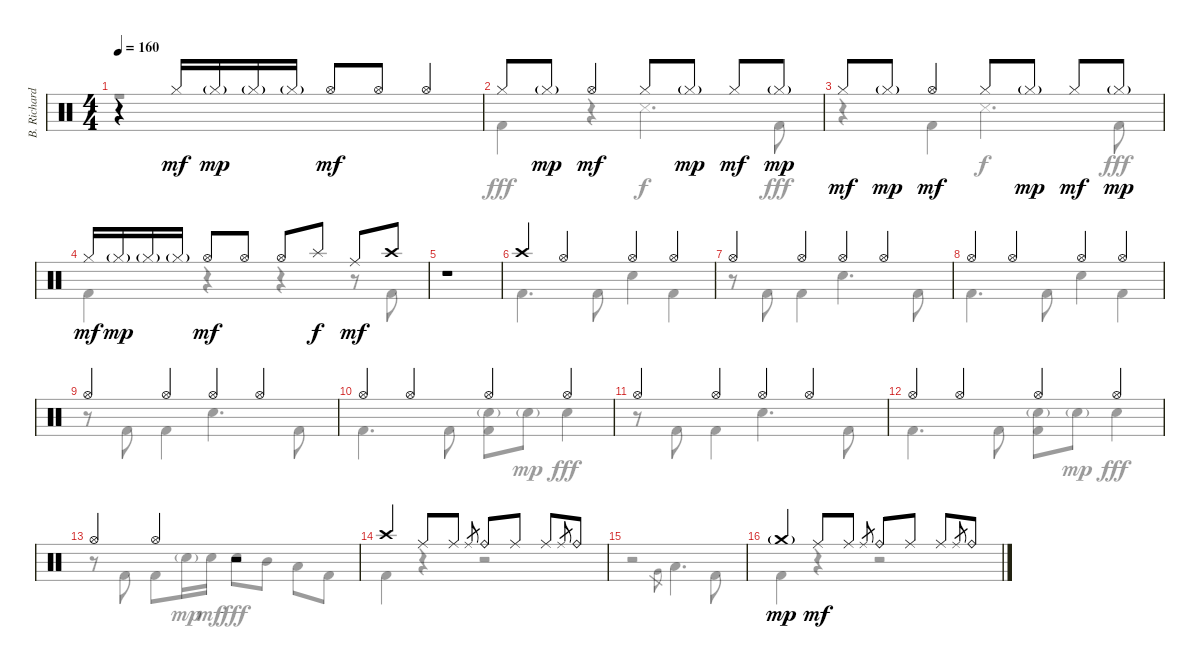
\track ("B. Richardson Drums" "B. Richard") {instrument percussion}
\staff {score}
\articulation defaults
\voice
\ts (4 4)
\tempo 160
\clef neutral
\ks c
r.4{dy mf} "Hi-Hat (closed)".16 "Hi-Hat (closed)"{g}.16{dy mp} "Hi-Hat (closed)"{g}.16 "Hi-Hat (closed)"{g}.16 "Hi-Hat (open)".8{dy mf} "Hi-Hat (open)".8 "Hi-Hat (open)".4 |
"Hi-Hat (closed)".8 "Hi-Hat (closed)"{g}.8{dy mp} "Hi-Hat (open)".4{dy mf} "Hi-Hat (closed)".8 "Hi-Hat (closed)"{g}.8{dy mp} "Hi-Hat (closed)".8{dy mf} "Hi-Hat (closed)"{g}.8{dy mp} |
"Hi-Hat (closed)".8{dy mf} "Hi-Hat (closed)"{g}.8{dy mp} "Hi-Hat (open)".4{dy mf} "Hi-Hat (closed)".8 "Hi-Hat (closed)"{g}.8{dy mp} "Hi-Hat (closed)".8{dy mf} "Hi-Hat (closed)"{g}.8{dy mp} |
"Hi-Hat (closed)".16{dy mf} "Hi-Hat (closed)"{g}.16{dy mp} "Hi-Hat (closed)"{g}.16 "Hi-Hat (closed)"{g}.16 "Hi-Hat (open)".8{dy mf} "Hi-Hat (open)".8 "Hi-Hat (open)".8 "Splash (hit)".8{dy f} "Ride (middle)".8{dy mf} "Crash high (hit)".8 |
r.1 |
"Crash high (hit)".4 "Hi-Hat (open)".4 "Hi-Hat (open)".4 "Hi-Hat (open)".4 |
"Hi-Hat (open)".4 "Hi-Hat (open)".4 "Hi-Hat (open)".4 "Hi-Hat (open)".4 |
"Hi-Hat (open)".4 "Hi-Hat (open)".4 "Hi-Hat (open)".4 "Hi-Hat (open)".4 |
"Hi-Hat (open)".4 "Hi-Hat (open)".4 "Hi-Hat (open)".4 "Hi-Hat (open)".4 |
"Hi-Hat (open)".4 "Hi-Hat (open)".4 "Hi-Hat (open)".4 "Hi-Hat (open)".4 |
"Hi-Hat (open)".4 "Hi-Hat (open)".4 "Hi-Hat (open)".4 "Hi-Hat (open)".4 |
"Hi-Hat (open)".4 "Hi-Hat (open)".4 "Hi-Hat (open)".4 "Hi-Hat (open)".4 |
"Hi-Hat (open)".4 "Hi-Hat (open)".4 r.2 |
"Crash high (hit)".4 "Ride (middle)".8 "Ride (middle)".8 "Ride (middle)".8{gr} "Ride (bell)".8 "Ride (middle)".8 "Ride (middle)".8 "Ride (middle)".8{gr} "Ride (bell)".8 |
|
"Crash medium (hit)"{g}.4{dy mp} "Ride (middle)".8{dy mf} "Ride (middle)".8 "Ride (middle)".8{gr} "Ride (bell)".8 "Ride (middle)".8 "Ride (middle)".8 "Ride (middle)".8{gr} "Ride (bell)".8
\voice
\clef neutral
\ottava regular
\simile none
\ks c
r.1{dy fff} |
"Kick (hit) 2".4 r.4 "Snare (side stick) 3".4{d dy f} "Kick (hit) 2".8{dy fff} |
r.4 "Kick (hit) 2".4 "Snare (side stick) 3".4{d dy f} "Kick (hit) 2".8{dy fff} |
"Kick (hit) 2".4 r.4 r.4 r.8 "Kick (hit) 2".8 |
r.1 |
"Kick (hit) 2".4{d} "Kick (hit) 2".8 "Electric Snare (hit)".4 "Kick (hit) 2".4 |
r.8 "Kick (hit) 2".8 "Kick (hit) 2".4 "Electric Snare (hit)".4{d} "Kick (hit) 2".8 |
"Kick (hit) 2".4{d} "Kick (hit) 2".8 "Electric Snare (hit)".4 "Kick (hit) 2".4 |
r.8 "Kick (hit) 2".8 "Kick (hit) 2".4 "Electric Snare (hit)".4{d} "Kick (hit) 2".8 |
"Kick (hit) 2".4{d} "Kick (hit) 2".8 ("Electric Snare (hit)"{g} "Kick (hit) 2").8 "Electric Snare (hit)"{g}.8{dy mp} "Electric Snare (hit)".4{dy fff} |
r.8 "Kick (hit) 2".8 "Kick (hit) 2".4 "Electric Snare (hit)".4{d} "Kick (hit) 2".8 |
"Kick (hit) 2".4{d} "Kick (hit) 2".8 ("Electric Snare (hit)"{g} "Kick (hit) 2").8 "Electric Snare (hit)"{g}.8{dy mp} "Electric Snare (hit)".4{dy fff} |
r.8 "Kick (hit) 2".8 "Kick (hit) 2".8 "Electric Snare (hit)"{g}.16{dy mp} "Electric Snare (hit)".16{dy mf} "Electric Snare (hit)".8{dy fff} "Mid Tom (hit)".8 "Low Tom (hit)".8 "Kick (hit) 2".8 |
"Kick (hit) 2".4 r.4 r.2 |
r.2 "Very Low Tom (hit)".8{gr} "Low Tom (hit)".4{d} "Kick (hit) 2".8 |
"Kick (hit) 2".4 r.4 r.2
